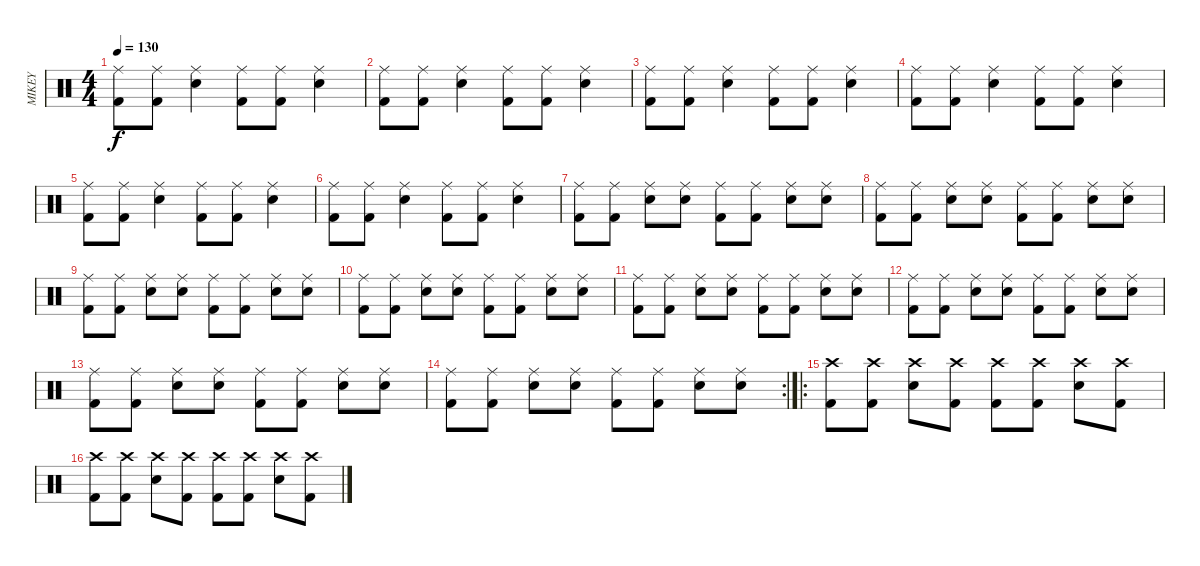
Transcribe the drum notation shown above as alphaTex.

\track ("MIKEY" "MIKEY") {instrument percussion}
\staff {score}
\articulation defaults
\ts (4 4)
\tempo 130
\clef neutral
\ks c
("Ride (middle)" "Kick (hit) 2").8{dy f} ("Ride (middle)" "Kick (hit) 2").8 ("Ride (middle)" "Snare (hit) 2").4 ("Ride (middle)" "Kick (hit) 2").8 ("Ride (middle)" "Kick (hit) 2").8 ("Ride (middle)" "Snare (hit) 2").4 |
("Ride (middle)" "Kick (hit) 2").8 ("Ride (middle)" "Kick (hit) 2").8 ("Ride (middle)" "Snare (hit) 2").4 ("Ride (middle)" "Kick (hit) 2").8 ("Ride (middle)" "Kick (hit) 2").8 ("Ride (middle)" "Snare (hit) 2").4 |
("Ride (middle)" "Kick (hit) 2").8 ("Ride (middle)" "Kick (hit) 2").8 ("Ride (middle)" "Snare (hit) 2").4 ("Ride (middle)" "Kick (hit) 2").8 ("Ride (middle)" "Kick (hit) 2").8 ("Ride (middle)" "Snare (hit) 2").4 |
("Ride (middle)" "Kick (hit) 2").8 ("Ride (middle)" "Kick (hit) 2").8 ("Ride (middle)" "Snare (hit) 2").4 ("Ride (middle)" "Kick (hit) 2").8 ("Ride (middle)" "Kick (hit) 2").8 ("Ride (middle)" "Snare (hit) 2").4 |
("Ride (middle)" "Kick (hit) 2").8 ("Ride (middle)" "Kick (hit) 2").8 ("Ride (middle)" "Snare (hit) 2").4 ("Ride (middle)" "Kick (hit) 2").8 ("Ride (middle)" "Kick (hit) 2").8 ("Ride (middle)" "Snare (hit) 2").4 |
("Ride (middle)" "Kick (hit) 2").8 ("Ride (middle)" "Kick (hit) 2").8 ("Ride (middle)" "Snare (hit) 2").4 ("Ride (middle)" "Kick (hit) 2").8 ("Ride (middle)" "Kick (hit) 2").8 ("Ride (middle)" "Snare (hit) 2").4 |
("Ride (middle)" "Kick (hit) 2").8 ("Ride (middle)" "Kick (hit) 2").8 ("Ride (middle)" "Snare (hit) 2").8 ("Ride (middle)" "Snare (hit) 2").8 ("Ride (middle)" "Kick (hit) 2").8 ("Ride (middle)" "Kick (hit) 2").8 ("Ride (middle)" "Snare (hit) 2").8 ("Ride (middle)" "Snare (hit) 2").8 |
("Ride (middle)" "Kick (hit) 2").8 ("Ride (middle)" "Kick (hit) 2").8 ("Ride (middle)" "Snare (hit) 2").8 ("Ride (middle)" "Snare (hit) 2").8 ("Ride (middle)" "Kick (hit) 2").8 ("Ride (middle)" "Kick (hit) 2").8 ("Ride (middle)" "Snare (hit) 2").8 ("Ride (middle)" "Snare (hit) 2").8 |
("Ride (middle)" "Kick (hit) 2").8 ("Ride (middle)" "Kick (hit) 2").8 ("Ride (middle)" "Snare (hit) 2").8 ("Ride (middle)" "Snare (hit) 2").8 ("Ride (middle)" "Kick (hit) 2").8 ("Ride (middle)" "Kick (hit) 2").8 ("Ride (middle)" "Snare (hit) 2").8 ("Ride (middle)" "Snare (hit) 2").8 |
("Ride (middle)" "Kick (hit) 2").8 ("Ride (middle)" "Kick (hit) 2").8 ("Ride (middle)" "Snare (hit) 2").8 ("Ride (middle)" "Snare (hit) 2").8 ("Ride (middle)" "Kick (hit) 2").8 ("Ride (middle)" "Kick (hit) 2").8 ("Ride (middle)" "Snare (hit) 2").8 ("Ride (middle)" "Snare (hit) 2").8 |
("Ride (middle)" "Kick (hit) 2").8 ("Ride (middle)" "Kick (hit) 2").8 ("Ride (middle)" "Snare (hit) 2").8 ("Ride (middle)" "Snare (hit) 2").8 ("Ride (middle)" "Kick (hit) 2").8 ("Ride (middle)" "Kick (hit) 2").8 ("Ride (middle)" "Snare (hit) 2").8 ("Ride (middle)" "Snare (hit) 2").8 |
("Ride (middle)" "Kick (hit) 2").8 ("Ride (middle)" "Kick (hit) 2").8 ("Ride (middle)" "Snare (hit) 2").8 ("Ride (middle)" "Snare (hit) 2").8 ("Ride (middle)" "Kick (hit) 2").8 ("Ride (middle)" "Kick (hit) 2").8 ("Ride (middle)" "Snare (hit) 2").8 ("Ride (middle)" "Snare (hit) 2").8 |
("Ride (middle)" "Kick (hit) 2").8 ("Ride (middle)" "Kick (hit) 2").8 ("Ride (middle)" "Snare (hit) 2").8 ("Ride (middle)" "Snare (hit) 2").8 ("Ride (middle)" "Kick (hit) 2").8 ("Ride (middle)" "Kick (hit) 2").8 ("Ride (middle)" "Snare (hit) 2").8 ("Ride (middle)" "Snare (hit) 2").8 |
\rc 2
("Ride (middle)" "Kick (hit) 2").8 ("Ride (middle)" "Kick (hit) 2").8 ("Ride (middle)" "Snare (hit) 2").8 ("Ride (middle)" "Snare (hit) 2").8 ("Ride (middle)" "Kick (hit) 2").8 ("Ride (middle)" "Kick (hit) 2").8 ("Ride (middle)" "Snare (hit) 2").8 ("Ride (middle)" "Snare (hit) 2").8 |
\ro
("Crash high (hit)" "Kick (hit) 2").8 ("Crash high (hit)" "Kick (hit) 2").8 ("Crash high (hit)" "Snare (hit) 2").8 ("Crash high (hit)" "Kick (hit) 2").8 ("Crash high (hit)" "Kick (hit) 2").8 ("Crash high (hit)" "Kick (hit) 2").8 ("Crash high (hit)" "Snare (hit) 2").8 ("Crash high (hit)" "Kick (hit) 2").8 |
("Crash high (hit)" "Kick (hit) 2").8 ("Crash high (hit)" "Kick (hit) 2").8 ("Crash high (hit)" "Snare (hit) 2").8 ("Crash high (hit)" "Kick (hit) 2").8 ("Crash high (hit)" "Kick (hit) 2").8 ("Crash high (hit)" "Kick (hit) 2").8 ("Crash high (hit)" "Snare (hit) 2").8 ("Crash high (hit)" "Kick (hit) 2").8
